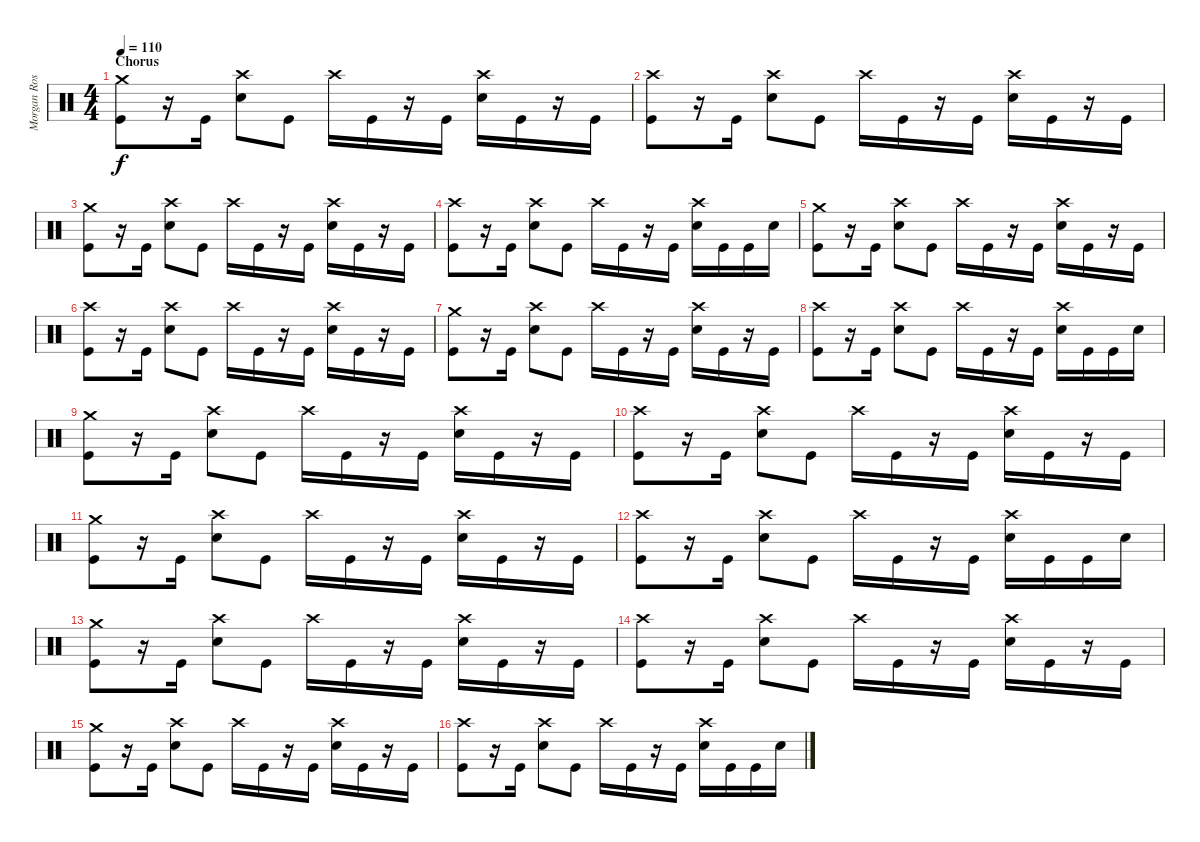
\track ("Morgan Rose" "Morgan Ros") {instrument percussion}
\staff {score}
\articulation defaults
\ts (4 4)
\section ("" "Chorus")
\tempo 110
\clef neutral
\ks c
("Crash medium (hit)" "Kick (hit)").8{dy f} r.16 "Kick (hit)".16 ("Crash high (hit)" "Snare (hit) 2").8 "Kick (hit)".8 "Crash high (hit)".16 "Kick (hit)".16 r.16 "Kick (hit)".16 ("Crash high (hit)" "Snare (hit) 2").16 "Kick (hit)".16 r.16 "Kick (hit)".16 |
("Crash high (hit)" "Kick (hit)").8 r.16 "Kick (hit)".16 ("Crash high (hit)" "Snare (hit) 2").8 "Kick (hit)".8 "Crash high (hit)".16 "Kick (hit)".16 r.16 "Kick (hit)".16 ("Crash high (hit)" "Snare (hit) 2").16 "Kick (hit)".16 r.16 "Kick (hit)".16 |
("Crash medium (hit)" "Kick (hit)").8 r.16 "Kick (hit)".16 ("Crash high (hit)" "Snare (hit) 2").8 "Kick (hit)".8 "Crash high (hit)".16 "Kick (hit)".16 r.16 "Kick (hit)".16 ("Crash high (hit)" "Snare (hit) 2").16 "Kick (hit)".16 r.16 "Kick (hit)".16 |
("Crash high (hit)" "Kick (hit)").8 r.16 "Kick (hit)".16 ("Crash high (hit)" "Snare (hit) 2").8 "Kick (hit)".8 "Crash high (hit)".16 "Kick (hit)".16 r.16 "Kick (hit)".16 ("Crash high (hit)" "Snare (hit) 2").16 "Kick (hit)".16 "Kick (hit)".16 "Snare (hit) 2".16 |
("Crash medium (hit)" "Kick (hit)").8 r.16 "Kick (hit)".16 ("Crash high (hit)" "Snare (hit) 2").8 "Kick (hit)".8 "Crash high (hit)".16 "Kick (hit)".16 r.16 "Kick (hit)".16 ("Crash high (hit)" "Snare (hit) 2").16 "Kick (hit)".16 r.16 "Kick (hit)".16 |
("Crash high (hit)" "Kick (hit)").8 r.16 "Kick (hit)".16 ("Crash high (hit)" "Snare (hit) 2").8 "Kick (hit)".8 "Crash high (hit)".16 "Kick (hit)".16 r.16 "Kick (hit)".16 ("Crash high (hit)" "Snare (hit) 2").16 "Kick (hit)".16 r.16 "Kick (hit)".16 |
("Crash medium (hit)" "Kick (hit)").8 r.16 "Kick (hit)".16 ("Crash high (hit)" "Snare (hit) 2").8 "Kick (hit)".8 "Crash high (hit)".16 "Kick (hit)".16 r.16 "Kick (hit)".16 ("Crash high (hit)" "Snare (hit) 2").16 "Kick (hit)".16 r.16 "Kick (hit)".16 |
("Crash high (hit)" "Kick (hit)").8 r.16 "Kick (hit)".16 ("Crash high (hit)" "Snare (hit) 2").8 "Kick (hit)".8 "Crash high (hit)".16 "Kick (hit)".16 r.16 "Kick (hit)".16 ("Crash high (hit)" "Snare (hit) 2").16 "Kick (hit)".16 "Kick (hit)".16 "Snare (hit) 2".16 |
("Crash medium (hit)" "Kick (hit)").8 r.16 "Kick (hit)".16 ("Crash high (hit)" "Snare (hit) 2").8 "Kick (hit)".8 "Crash high (hit)".16 "Kick (hit)".16 r.16 "Kick (hit)".16 ("Crash high (hit)" "Snare (hit) 2").16 "Kick (hit)".16 r.16 "Kick (hit)".16 |
("Crash high (hit)" "Kick (hit)").8 r.16 "Kick (hit)".16 ("Crash high (hit)" "Snare (hit) 2").8 "Kick (hit)".8 "Crash high (hit)".16 "Kick (hit)".16 r.16 "Kick (hit)".16 ("Crash high (hit)" "Snare (hit) 2").16 "Kick (hit)".16 r.16 "Kick (hit)".16 |
("Crash medium (hit)" "Kick (hit)").8 r.16 "Kick (hit)".16 ("Crash high (hit)" "Snare (hit) 2").8 "Kick (hit)".8 "Crash high (hit)".16 "Kick (hit)".16 r.16 "Kick (hit)".16 ("Crash high (hit)" "Snare (hit) 2").16 "Kick (hit)".16 r.16 "Kick (hit)".16 |
("Crash high (hit)" "Kick (hit)").8 r.16 "Kick (hit)".16 ("Crash high (hit)" "Snare (hit) 2").8 "Kick (hit)".8 "Crash high (hit)".16 "Kick (hit)".16 r.16 "Kick (hit)".16 ("Crash high (hit)" "Snare (hit) 2").16 "Kick (hit)".16 "Kick (hit)".16 "Snare (hit) 2".16 |
("Crash medium (hit)" "Kick (hit)").8 r.16 "Kick (hit)".16 ("Crash high (hit)" "Snare (hit) 2").8 "Kick (hit)".8 "Crash high (hit)".16 "Kick (hit)".16 r.16 "Kick (hit)".16 ("Crash high (hit)" "Snare (hit) 2").16 "Kick (hit)".16 r.16 "Kick (hit)".16 |
("Crash high (hit)" "Kick (hit)").8 r.16 "Kick (hit)".16 ("Crash high (hit)" "Snare (hit) 2").8 "Kick (hit)".8 "Crash high (hit)".16 "Kick (hit)".16 r.16 "Kick (hit)".16 ("Crash high (hit)" "Snare (hit) 2").16 "Kick (hit)".16 r.16 "Kick (hit)".16 |
("Crash medium (hit)" "Kick (hit)").8 r.16 "Kick (hit)".16 ("Crash high (hit)" "Snare (hit) 2").8 "Kick (hit)".8 "Crash high (hit)".16 "Kick (hit)".16 r.16 "Kick (hit)".16 ("Crash high (hit)" "Snare (hit) 2").16 "Kick (hit)".16 r.16 "Kick (hit)".16 |
("Crash high (hit)" "Kick (hit)").8 r.16 "Kick (hit)".16 ("Crash high (hit)" "Snare (hit) 2").8 "Kick (hit)".8 "Crash high (hit)".16 "Kick (hit)".16 r.16 "Kick (hit)".16 ("Crash high (hit)" "Snare (hit) 2").16 "Kick (hit)".16 "Kick (hit)".16 "Snare (hit) 2".16
